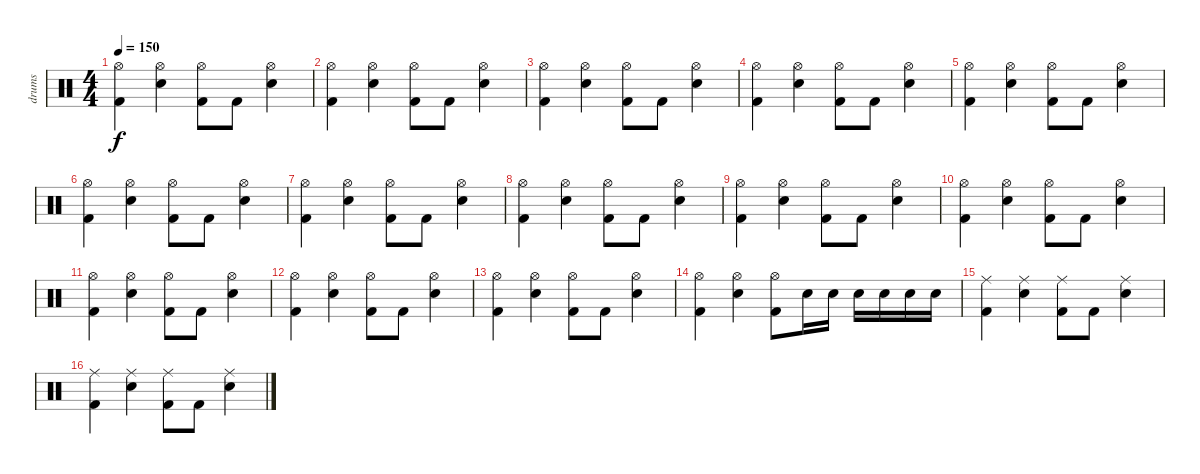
\track ("drums" "drums") {instrument percussion}
\staff {score}
\articulation defaults
\ts (4 4)
\tempo 150
\clef neutral
\ks c
("Hi-Hat (open)" "Kick (hit) 2").4{dy f} ("Hi-Hat (open)" "Snare (hit) 2").4 ("Hi-Hat (open)" "Kick (hit) 2").8 "Kick (hit) 2".8 ("Hi-Hat (open)" "Snare (hit) 2").4 |
("Hi-Hat (open)" "Kick (hit) 2").4 ("Hi-Hat (open)" "Snare (hit) 2").4 ("Hi-Hat (open)" "Kick (hit) 2").8 "Kick (hit) 2".8 ("Hi-Hat (open)" "Snare (hit) 2").4 |
("Hi-Hat (open)" "Kick (hit) 2").4 ("Hi-Hat (open)" "Snare (hit) 2").4 ("Hi-Hat (open)" "Kick (hit) 2").8 "Kick (hit) 2".8 ("Hi-Hat (open)" "Snare (hit) 2").4 |
("Hi-Hat (open)" "Kick (hit) 2").4 ("Hi-Hat (open)" "Snare (hit) 2").4 ("Hi-Hat (open)" "Kick (hit) 2").8 "Kick (hit) 2".8 ("Hi-Hat (open)" "Snare (hit) 2").4 |
("Hi-Hat (open)" "Kick (hit) 2").4 ("Hi-Hat (open)" "Snare (hit) 2").4 ("Hi-Hat (open)" "Kick (hit) 2").8 "Kick (hit) 2".8 ("Hi-Hat (open)" "Snare (hit) 2").4 |
("Hi-Hat (open)" "Kick (hit) 2").4 ("Hi-Hat (open)" "Snare (hit) 2").4 ("Hi-Hat (open)" "Kick (hit) 2").8 "Kick (hit) 2".8 ("Hi-Hat (open)" "Snare (hit) 2").4 |
("Hi-Hat (open)" "Kick (hit) 2").4 ("Hi-Hat (open)" "Snare (hit) 2").4 ("Hi-Hat (open)" "Kick (hit) 2").8 "Kick (hit) 2".8 ("Hi-Hat (open)" "Snare (hit) 2").4 |
("Hi-Hat (open)" "Kick (hit) 2").4 ("Hi-Hat (open)" "Snare (hit) 2").4 ("Hi-Hat (open)" "Kick (hit) 2").8 "Kick (hit) 2".8 ("Hi-Hat (open)" "Snare (hit) 2").4 |
("Hi-Hat (open)" "Kick (hit) 2").4 ("Hi-Hat (open)" "Snare (hit) 2").4 ("Hi-Hat (open)" "Kick (hit) 2").8 "Kick (hit) 2".8 ("Hi-Hat (open)" "Snare (hit) 2").4 |
("Hi-Hat (open)" "Kick (hit) 2").4 ("Hi-Hat (open)" "Snare (hit) 2").4 ("Hi-Hat (open)" "Kick (hit) 2").8 "Kick (hit) 2".8 ("Hi-Hat (open)" "Snare (hit) 2").4 |
("Hi-Hat (open)" "Kick (hit) 2").4 ("Hi-Hat (open)" "Snare (hit) 2").4 ("Hi-Hat (open)" "Kick (hit) 2").8 "Kick (hit) 2".8 ("Hi-Hat (open)" "Snare (hit) 2").4 |
("Hi-Hat (open)" "Kick (hit) 2").4 ("Hi-Hat (open)" "Snare (hit) 2").4 ("Hi-Hat (open)" "Kick (hit) 2").8 "Kick (hit) 2".8 ("Hi-Hat (open)" "Snare (hit) 2").4 |
("Hi-Hat (open)" "Kick (hit) 2").4 ("Hi-Hat (open)" "Snare (hit) 2").4 ("Hi-Hat (open)" "Kick (hit) 2").8 "Kick (hit) 2".8 ("Hi-Hat (open)" "Snare (hit) 2").4 |
("Hi-Hat (open)" "Kick (hit) 2").4 ("Hi-Hat (open)" "Snare (hit) 2").4 ("Hi-Hat (open)" "Kick (hit) 2").8 "Snare (hit) 2".16 "Snare (hit) 2".16 "Snare (hit) 2".16 "Snare (hit) 2".16 "Snare (hit) 2".16 "Snare (hit) 2".16 |
("Ride (middle)" "Kick (hit) 2").4 ("Ride (middle)" "Snare (hit) 2").4 ("Ride (middle)" "Kick (hit) 2").8 "Kick (hit) 2".8 ("Ride (middle)" "Snare (hit) 2").4 |
("Ride (middle)" "Kick (hit) 2").4 ("Ride (middle)" "Snare (hit) 2").4 ("Ride (middle)" "Kick (hit) 2").8 "Kick (hit) 2".8 ("Ride (middle)" "Snare (hit) 2").4
